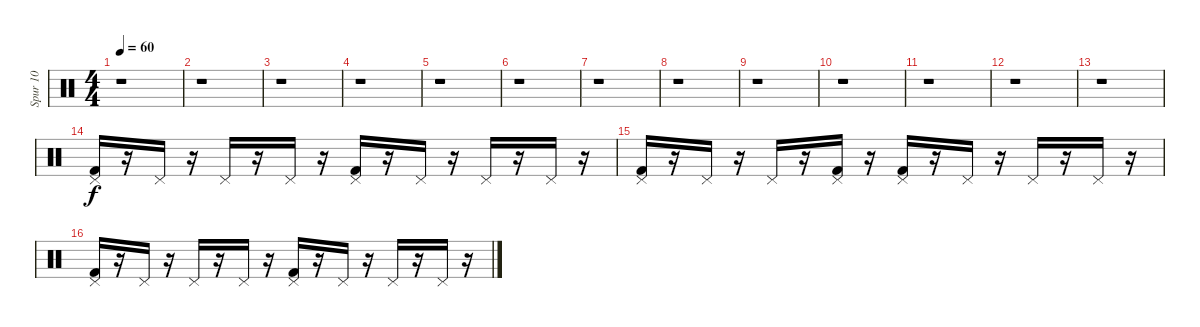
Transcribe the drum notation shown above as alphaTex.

\track ("Spur 10" "Spur 10") {instrument percussion}
\staff {score}
\articulation defaults
\ts (4 4)
\tempo 60
\clef neutral
\ks c
r.1{dy f} |
r.1 |
r.1 |
r.1 |
r.1 |
r.1 |
r.1 |
r.1 |
r.1 |
r.1 |
r.1 |
r.1 |
r.1 |
("Pedal Hi-Hat (hit)" "Kick (hit) 2").16 r.16 "Pedal Hi-Hat (hit)".16 r.16 "Pedal Hi-Hat (hit)".16 r.16 "Pedal Hi-Hat (hit)".16 r.16 ("Pedal Hi-Hat (hit)" "Kick (hit) 2").16 r.16 "Pedal Hi-Hat (hit)".16 r.16 "Pedal Hi-Hat (hit)".16 r.16 "Pedal Hi-Hat (hit)".16 r.16 |
("Pedal Hi-Hat (hit)" "Kick (hit) 2").16 r.16 "Pedal Hi-Hat (hit)".16 r.16 "Pedal Hi-Hat (hit)".16 r.16 ("Kick (hit) 2" "Pedal Hi-Hat (hit)").16 r.16 ("Pedal Hi-Hat (hit)" "Kick (hit) 2").16 r.16 "Pedal Hi-Hat (hit)".16 r.16 "Pedal Hi-Hat (hit)".16 r.16 "Pedal Hi-Hat (hit)".16 r.16 |
("Pedal Hi-Hat (hit)" "Kick (hit) 2").16 r.16 "Pedal Hi-Hat (hit)".16 r.16 "Pedal Hi-Hat (hit)".16 r.16 "Pedal Hi-Hat (hit)".16 r.16 ("Pedal Hi-Hat (hit)" "Kick (hit) 2").16 r.16 "Pedal Hi-Hat (hit)".16 r.16 "Pedal Hi-Hat (hit)".16 r.16 "Pedal Hi-Hat (hit)".16 r.16
